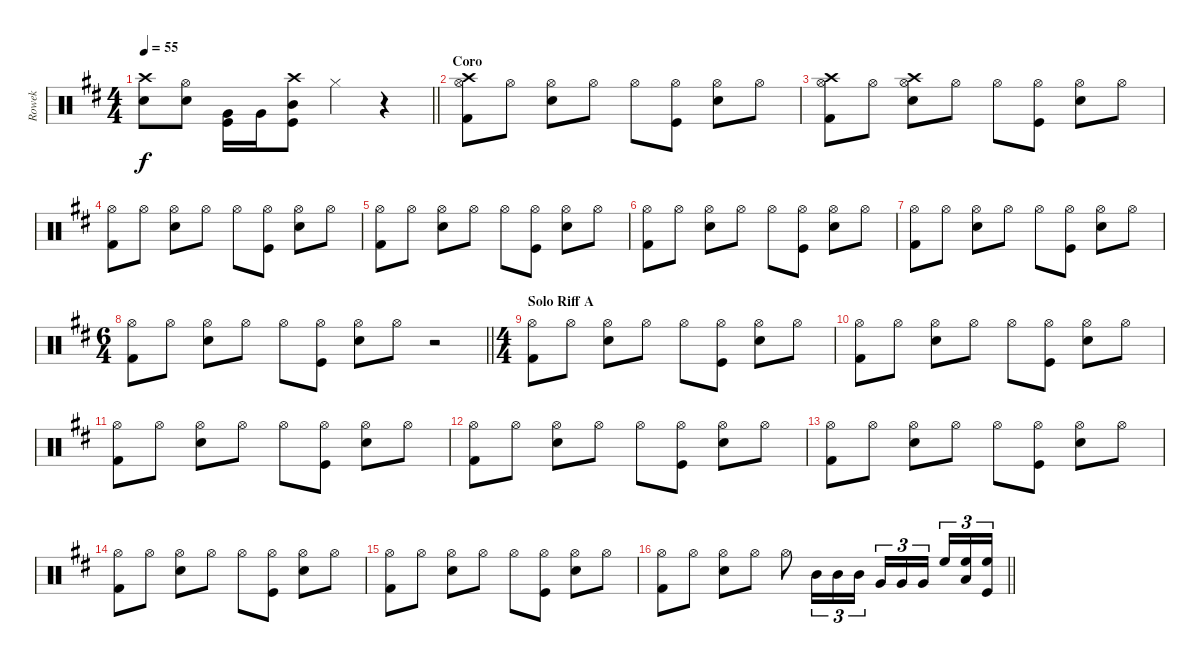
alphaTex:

\track ("Rowek" "Rowek") {instrument percussion}
\staff {score}
\articulation defaults
\ts (4 4)
\tempo 55
\clef neutral
\barLineRight lightlight
\ks d
("Crash high (hit)" "Snare (hit) 2").8{dy f} ("Hi-Hat (open)" "Snare (hit) 2").8 ("Very Low Tom (hit)" "Kick (hit)").16 "Very Low Tom (hit)".16 ("Crash high (hit)" "Mid Tom (hit)" "Kick (hit)").8 "Hi-Hat (closed)".4 r.4 |
\section ("" "Coro")
("Hi-Hat (open)" "Crash high (hit)" "Kick (hit) 2").8 "Hi-Hat (open)".8 ("Hi-Hat (open)" "Electric Snare (hit)").8 "Hi-Hat (open)".8 "Hi-Hat (open)".8 ("Hi-Hat (open)" "Kick (hit)").8 ("Hi-Hat (open)" "Snare (hit) 2").8 "Hi-Hat (open)".8 |
("Hi-Hat (open)" "Crash high (hit)" "Kick (hit) 2").8 "Hi-Hat (open)".8 ("Hi-Hat (open)" "Crash high (hit)" "Electric Snare (hit)").8 "Hi-Hat (open)".8 "Hi-Hat (open)".8 ("Hi-Hat (open)" "Kick (hit)").8 ("Hi-Hat (open)" "Snare (hit) 2").8 "Hi-Hat (open)".8 |
("Hi-Hat (open)" "Kick (hit) 2").8 "Hi-Hat (open)".8 ("Hi-Hat (open)" "Electric Snare (hit)").8 "Hi-Hat (open)".8 "Hi-Hat (open)".8 ("Hi-Hat (open)" "Kick (hit)").8 ("Hi-Hat (open)" "Snare (hit) 2").8 "Hi-Hat (open)".8 |
("Hi-Hat (open)" "Kick (hit) 2").8 "Hi-Hat (open)".8 ("Hi-Hat (open)" "Electric Snare (hit)").8 "Hi-Hat (open)".8 "Hi-Hat (open)".8 ("Hi-Hat (open)" "Kick (hit)").8 ("Hi-Hat (open)" "Snare (hit) 2").8 "Hi-Hat (open)".8 |
("Hi-Hat (open)" "Kick (hit) 2").8 "Hi-Hat (open)".8 ("Hi-Hat (open)" "Electric Snare (hit)").8 "Hi-Hat (open)".8 "Hi-Hat (open)".8 ("Hi-Hat (open)" "Kick (hit)").8 ("Hi-Hat (open)" "Snare (hit) 2").8 "Hi-Hat (open)".8 |
("Hi-Hat (open)" "Kick (hit) 2").8 "Hi-Hat (open)".8 ("Hi-Hat (open)" "Electric Snare (hit)").8 "Hi-Hat (open)".8 "Hi-Hat (open)".8 ("Hi-Hat (open)" "Kick (hit)").8 ("Hi-Hat (open)" "Snare (hit) 2").8 "Hi-Hat (open)".8 |
\ts (6 4)
\barLineRight lightlight
("Hi-Hat (open)" "Kick (hit) 2").8 "Hi-Hat (open)".8 ("Hi-Hat (open)" "Electric Snare (hit)").8 "Hi-Hat (open)".8 "Hi-Hat (open)".8 ("Hi-Hat (open)" "Kick (hit)").8 ("Hi-Hat (open)" "Snare (hit) 2").8 "Hi-Hat (open)".8 r.2 |
\ts (4 4)
\section ("" "Solo Riff A")
("Hi-Hat (open)" "Kick (hit) 2").8{volume 9} "Hi-Hat (open)".8 ("Hi-Hat (open)" "Electric Snare (hit)").8 "Hi-Hat (open)".8 "Hi-Hat (open)".8 ("Hi-Hat (open)" "Kick (hit)").8 ("Hi-Hat (open)" "Snare (hit) 2").8 "Hi-Hat (open)".8 |
("Hi-Hat (open)" "Kick (hit) 2").8 "Hi-Hat (open)".8 ("Hi-Hat (open)" "Electric Snare (hit)").8 "Hi-Hat (open)".8 "Hi-Hat (open)".8 ("Hi-Hat (open)" "Kick (hit)").8 ("Hi-Hat (open)" "Snare (hit) 2").8 "Hi-Hat (open)".8 |
("Hi-Hat (open)" "Kick (hit) 2").8 "Hi-Hat (open)".8 ("Hi-Hat (open)" "Electric Snare (hit)").8 "Hi-Hat (open)".8 "Hi-Hat (open)".8 ("Hi-Hat (open)" "Kick (hit)").8 ("Hi-Hat (open)" "Snare (hit) 2").8 "Hi-Hat (open)".8 |
("Hi-Hat (open)" "Kick (hit) 2").8 "Hi-Hat (open)".8 ("Hi-Hat (open)" "Electric Snare (hit)").8 "Hi-Hat (open)".8 "Hi-Hat (open)".8 ("Hi-Hat (open)" "Kick (hit)").8 ("Hi-Hat (open)" "Snare (hit) 2").8 "Hi-Hat (open)".8 |
("Hi-Hat (open)" "Kick (hit) 2").8 "Hi-Hat (open)".8 ("Hi-Hat (open)" "Electric Snare (hit)").8 "Hi-Hat (open)".8 "Hi-Hat (open)".8 ("Hi-Hat (open)" "Kick (hit)").8 ("Hi-Hat (open)" "Snare (hit) 2").8 "Hi-Hat (open)".8 |
("Hi-Hat (open)" "Kick (hit) 2").8 "Hi-Hat (open)".8 ("Hi-Hat (open)" "Electric Snare (hit)").8 "Hi-Hat (open)".8 "Hi-Hat (open)".8 ("Hi-Hat (open)" "Kick (hit)").8 ("Hi-Hat (open)" "Snare (hit) 2").8 "Hi-Hat (open)".8 |
("Hi-Hat (open)" "Kick (hit) 2").8 "Hi-Hat (open)".8 ("Hi-Hat (open)" "Electric Snare (hit)").8 "Hi-Hat (open)".8 "Hi-Hat (open)".8 ("Hi-Hat (open)" "Kick (hit)").8 ("Hi-Hat (open)" "Snare (hit) 2").8 "Hi-Hat (open)".8 |
\barLineRight lightlight
("Hi-Hat (open)" "Kick (hit) 2").8{volume 13} "Hi-Hat (open)".8 ("Hi-Hat (open)" "Electric Snare (hit)").8 "Hi-Hat (open)".8 "Hi-Hat (open)".8 "Mid Tom (hit)".16{tu (3 2)} "Mid Tom (hit)".16{tu (3 2)} "Mid Tom (hit)".16{tu (3 2)} "Very Low Tom (hit)".16{tu (3 2)} "Very Low Tom (hit)".16{tu (3 2)} "Very Low Tom (hit)".16{tu (3 2) beam splitsecondary} "High Floor Tom (hit)".16{tu (3 2)} ("High Floor Tom (hit)" "Low Floor Tom (hit)").16{tu (3 2)} ("High Floor Tom (hit)" "Kick (hit)").16{tu (3 2)}
